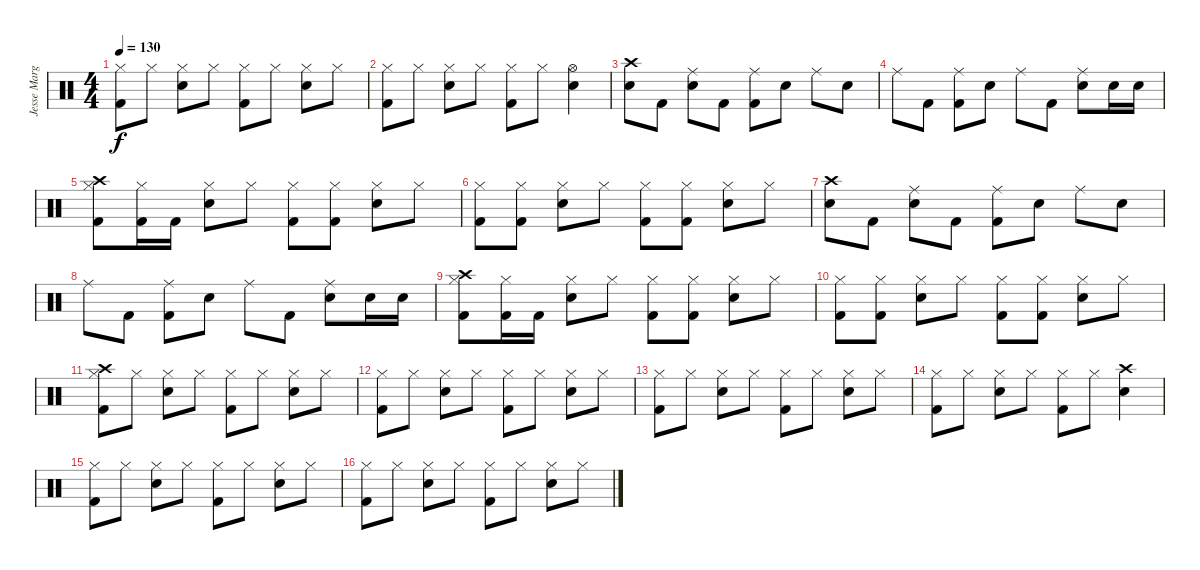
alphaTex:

\track ("Jesse Margera" "Jesse Marg") {instrument percussion}
\staff {score}
\articulation defaults
\ts (4 4)
\tempo 130
\clef neutral
\ks c
("Hi-Hat (closed)" "Kick (hit) 2").8{dy f} "Hi-Hat (closed)".8 ("Hi-Hat (closed)" "Electric Snare (hit)").8 "Hi-Hat (closed)".8 ("Hi-Hat (closed)" "Kick (hit) 2").8 "Hi-Hat (closed)".8 ("Hi-Hat (closed)" "Electric Snare (hit)").8 "Hi-Hat (closed)".8 |
("Hi-Hat (closed)" "Kick (hit) 2").8 "Hi-Hat (closed)".8 ("Hi-Hat (closed)" "Electric Snare (hit)").8 "Hi-Hat (closed)".8 ("Hi-Hat (closed)" "Kick (hit) 2").8 "Hi-Hat (closed)".8 ("Hi-Hat (open)" "Electric Snare (hit)").4 |
("Crash high (hit)" "Electric Snare (hit)").8 "Kick (hit) 2".8 ("Ride (middle)" "Electric Snare (hit)").8 "Kick (hit) 2".8 ("Ride (middle)" "Kick (hit) 2").8 "Electric Snare (hit)".8 "Ride (middle)".8 "Electric Snare (hit)".8 |
"Ride (middle)".8 "Kick (hit) 2".8 ("Ride (middle)" "Kick (hit) 2").8 "Electric Snare (hit)".8 "Ride (middle)".8 "Kick (hit) 2".8 ("Ride (middle)" "Electric Snare (hit)").8 "Electric Snare (hit)".16 "Electric Snare (hit)".16 |
("Hi-Hat (closed)" "Crash high (hit)" "Kick (hit) 2").8 ("Hi-Hat (closed)" "Kick (hit) 2").16 "Kick (hit) 2".16 ("Hi-Hat (closed)" "Electric Snare (hit)").8 "Hi-Hat (closed)".8 ("Hi-Hat (closed)" "Kick (hit) 2").8 ("Hi-Hat (closed)" "Kick (hit) 2").8 ("Hi-Hat (closed)" "Electric Snare (hit)").8 "Hi-Hat (closed)".8 |
("Hi-Hat (closed)" "Kick (hit) 2").8 ("Hi-Hat (closed)" "Kick (hit) 2").8 ("Hi-Hat (closed)" "Electric Snare (hit)").8 "Hi-Hat (closed)".8 ("Hi-Hat (closed)" "Kick (hit) 2").8 ("Hi-Hat (closed)" "Kick (hit) 2").8 ("Hi-Hat (closed)" "Electric Snare (hit)").8 "Hi-Hat (closed)".8 |
("Crash high (hit)" "Electric Snare (hit)").8 "Kick (hit) 2".8 ("Ride (middle)" "Electric Snare (hit)").8 "Kick (hit) 2".8 ("Ride (middle)" "Kick (hit) 2").8 "Electric Snare (hit)".8 "Ride (middle)".8 "Electric Snare (hit)".8 |
"Ride (middle)".8 "Kick (hit) 2".8 ("Ride (middle)" "Kick (hit) 2").8 "Electric Snare (hit)".8 "Ride (middle)".8 "Kick (hit) 2".8 ("Ride (middle)" "Electric Snare (hit)").8 "Electric Snare (hit)".16 "Electric Snare (hit)".16 |
("Hi-Hat (closed)" "Crash high (hit)" "Kick (hit) 2").8 ("Hi-Hat (closed)" "Kick (hit) 2").16 "Kick (hit) 2".16 ("Hi-Hat (closed)" "Electric Snare (hit)").8 "Hi-Hat (closed)".8 ("Hi-Hat (closed)" "Kick (hit) 2").8 ("Hi-Hat (closed)" "Kick (hit) 2").8 ("Hi-Hat (closed)" "Electric Snare (hit)").8 "Hi-Hat (closed)".8 |
("Hi-Hat (closed)" "Kick (hit) 2").8 ("Hi-Hat (closed)" "Kick (hit) 2").8 ("Hi-Hat (closed)" "Electric Snare (hit)").8 "Hi-Hat (closed)".8 ("Hi-Hat (closed)" "Kick (hit) 2").8 ("Hi-Hat (closed)" "Kick (hit) 2").8 ("Hi-Hat (closed)" "Electric Snare (hit)").8 "Hi-Hat (closed)".8 |
("Hi-Hat (closed)" "Crash high (hit)" "Kick (hit) 2").8 "Hi-Hat (closed)".8 ("Hi-Hat (closed)" "Electric Snare (hit)").8 "Hi-Hat (closed)".8 ("Hi-Hat (closed)" "Kick (hit) 2").8 "Hi-Hat (closed)".8 ("Hi-Hat (closed)" "Electric Snare (hit)").8 "Hi-Hat (closed)".8 |
("Hi-Hat (closed)" "Kick (hit) 2").8 "Hi-Hat (closed)".8 ("Hi-Hat (closed)" "Electric Snare (hit)").8 "Hi-Hat (closed)".8 ("Hi-Hat (closed)" "Kick (hit) 2").8 "Hi-Hat (closed)".8 ("Hi-Hat (closed)" "Electric Snare (hit)").8 "Hi-Hat (closed)".8 |
("Hi-Hat (closed)" "Kick (hit) 2").8 "Hi-Hat (closed)".8 ("Hi-Hat (closed)" "Electric Snare (hit)").8 "Hi-Hat (closed)".8 ("Hi-Hat (closed)" "Kick (hit) 2").8 "Hi-Hat (closed)".8 ("Hi-Hat (closed)" "Electric Snare (hit)").8 "Hi-Hat (closed)".8 |
("Hi-Hat (closed)" "Kick (hit) 2").8 "Hi-Hat (closed)".8 ("Hi-Hat (closed)" "Electric Snare (hit)").8 "Hi-Hat (closed)".8 ("Hi-Hat (closed)" "Kick (hit) 2").8 "Hi-Hat (closed)".8 ("Crash high (hit)" "Electric Snare (hit)").4 |
("Hi-Hat (closed)" "Kick (hit) 2").8 "Hi-Hat (closed)".8 ("Hi-Hat (closed)" "Electric Snare (hit)").8 "Hi-Hat (closed)".8 ("Hi-Hat (closed)" "Kick (hit) 2").8 "Hi-Hat (closed)".8 ("Hi-Hat (closed)" "Electric Snare (hit)").8 "Hi-Hat (closed)".8 |
("Hi-Hat (closed)" "Kick (hit) 2").8 "Hi-Hat (closed)".8 ("Hi-Hat (closed)" "Electric Snare (hit)").8 "Hi-Hat (closed)".8 ("Hi-Hat (closed)" "Kick (hit) 2").8 "Hi-Hat (closed)".8 ("Hi-Hat (closed)" "Electric Snare (hit)").8 "Hi-Hat (closed)".8
